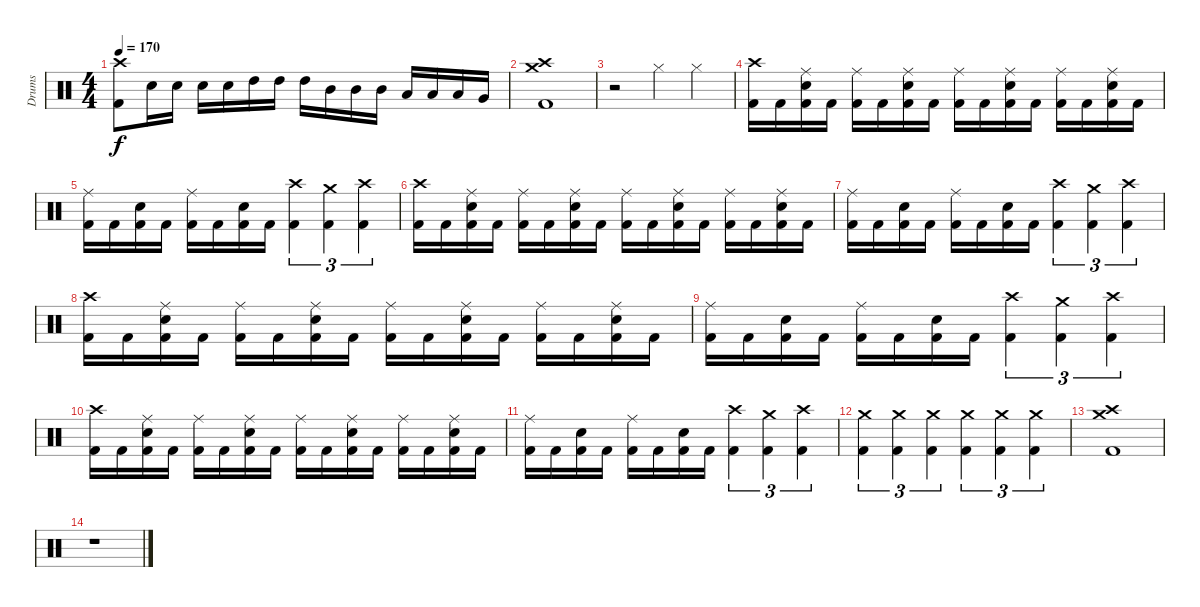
\track ("Drums" "Drums") {instrument percussion}
\staff {score}
\articulation defaults
\ts (4 4)
\tempo 170
\clef neutral
\ks c
("Crash high (hit)" "Kick (hit) 2").8{dy f} "Snare (hit) 2".16 "Snare (hit) 2".16 "Snare (hit) 2".16 "Snare (hit) 2".16 "High Tom (hit)".16 "High Tom (hit)".16 "High Tom (hit)".16 "Mid Tom (hit)".16 "Mid Tom (hit)".16 "Mid Tom (hit)".16 "Low Tom (hit)".16 "Low Tom (hit)".16 "Low Tom (hit)".16 "Very Low Tom (hit)".16 |
("Crash high (hit)" "Crash medium (hit)" "Kick (hit) 2").1 |
r.2 "Hi-Hat (closed)".4 "Hi-Hat (closed)".4 |
("Crash high (hit)" "Kick (hit) 2").16 "Kick (hit) 2".16 ("Ride (middle)" "Snare (hit) 2" "Kick (hit) 2").16 "Kick (hit) 2".16 ("Ride (middle)" "Kick (hit) 2").16 "Kick (hit) 2".16 ("Ride (middle)" "Snare (hit) 2" "Kick (hit) 2").16 "Kick (hit) 2".16 ("Ride (middle)" "Kick (hit) 2").16 "Kick (hit) 2".16 ("Ride (middle)" "Snare (hit) 2" "Kick (hit) 2").16 "Kick (hit) 2".16 ("Ride (middle)" "Kick (hit) 2").16 "Kick (hit) 2".16 ("Ride (middle)" "Snare (hit) 2" "Kick (hit) 2").16 "Kick (hit) 2".16 |
("Ride (middle)" "Kick (hit) 2").16 "Kick (hit) 2".16 ("Snare (hit) 2" "Kick (hit) 2").16 "Kick (hit) 2".16 ("Ride (middle)" "Kick (hit) 2").16 "Kick (hit) 2".16 ("Snare (hit) 2" "Kick (hit) 2").16 "Kick (hit) 2".16 ("Crash high (hit)" "Kick (hit) 2").4{tu (3 2)} ("Crash medium (hit)" "Kick (hit) 2").4{tu (3 2)} ("Crash high (hit)" "Kick (hit) 2").4{tu (3 2)} |
("Crash high (hit)" "Kick (hit) 2").16 "Kick (hit) 2".16 ("Ride (middle)" "Snare (hit) 2" "Kick (hit) 2").16 "Kick (hit) 2".16 ("Ride (middle)" "Kick (hit) 2").16 "Kick (hit) 2".16 ("Ride (middle)" "Snare (hit) 2" "Kick (hit) 2").16 "Kick (hit) 2".16 ("Ride (middle)" "Kick (hit) 2").16 "Kick (hit) 2".16 ("Ride (middle)" "Snare (hit) 2" "Kick (hit) 2").16 "Kick (hit) 2".16 ("Ride (middle)" "Kick (hit) 2").16 "Kick (hit) 2".16 ("Ride (middle)" "Snare (hit) 2" "Kick (hit) 2").16 "Kick (hit) 2".16 |
("Ride (middle)" "Kick (hit) 2").16 "Kick (hit) 2".16 ("Snare (hit) 2" "Kick (hit) 2").16 "Kick (hit) 2".16 ("Ride (middle)" "Kick (hit) 2").16 "Kick (hit) 2".16 ("Snare (hit) 2" "Kick (hit) 2").16 "Kick (hit) 2".16 ("Crash high (hit)" "Kick (hit) 2").4{tu (3 2)} ("Crash medium (hit)" "Kick (hit) 2").4{tu (3 2)} ("Crash high (hit)" "Kick (hit) 2").4{tu (3 2)} |
("Crash high (hit)" "Kick (hit) 2").16 "Kick (hit) 2".16 ("Ride (middle)" "Snare (hit) 2" "Kick (hit) 2").16 "Kick (hit) 2".16 ("Ride (middle)" "Kick (hit) 2").16 "Kick (hit) 2".16 ("Ride (middle)" "Snare (hit) 2" "Kick (hit) 2").16 "Kick (hit) 2".16 ("Ride (middle)" "Kick (hit) 2").16 "Kick (hit) 2".16 ("Ride (middle)" "Snare (hit) 2" "Kick (hit) 2").16 "Kick (hit) 2".16 ("Ride (middle)" "Kick (hit) 2").16 "Kick (hit) 2".16 ("Ride (middle)" "Snare (hit) 2" "Kick (hit) 2").16 "Kick (hit) 2".16 |
("Ride (middle)" "Kick (hit) 2").16 "Kick (hit) 2".16 ("Snare (hit) 2" "Kick (hit) 2").16 "Kick (hit) 2".16 ("Ride (middle)" "Kick (hit) 2").16 "Kick (hit) 2".16 ("Snare (hit) 2" "Kick (hit) 2").16 "Kick (hit) 2".16 ("Crash high (hit)" "Kick (hit) 2").4{tu (3 2)} ("Crash medium (hit)" "Kick (hit) 2").4{tu (3 2)} ("Crash high (hit)" "Kick (hit) 2").4{tu (3 2)} |
("Crash high (hit)" "Kick (hit) 2").16 "Kick (hit) 2".16 ("Ride (middle)" "Snare (hit) 2" "Kick (hit) 2").16 "Kick (hit) 2".16 ("Ride (middle)" "Kick (hit) 2").16 "Kick (hit) 2".16 ("Ride (middle)" "Snare (hit) 2" "Kick (hit) 2").16 "Kick (hit) 2".16 ("Ride (middle)" "Kick (hit) 2").16 "Kick (hit) 2".16 ("Ride (middle)" "Snare (hit) 2" "Kick (hit) 2").16 "Kick (hit) 2".16 ("Ride (middle)" "Kick (hit) 2").16 "Kick (hit) 2".16 ("Ride (middle)" "Snare (hit) 2" "Kick (hit) 2").16 "Kick (hit) 2".16 |
("Ride (middle)" "Kick (hit) 2").16 "Kick (hit) 2".16 ("Snare (hit) 2" "Kick (hit) 2").16 "Kick (hit) 2".16 ("Ride (middle)" "Kick (hit) 2").16 "Kick (hit) 2".16 ("Snare (hit) 2" "Kick (hit) 2").16 "Kick (hit) 2".16 ("Crash high (hit)" "Kick (hit) 2").4{tu (3 2)} ("Crash medium (hit)" "Kick (hit) 2").4{tu (3 2)} ("Crash high (hit)" "Kick (hit) 2").4{tu (3 2)} |
("Crash medium (hit)" "Kick (hit) 2").4{tu (3 2)} ("Crash medium (hit)" "Kick (hit) 2").4{tu (3 2)} ("Crash medium (hit)" "Kick (hit) 2").4{tu (3 2)} ("Crash medium (hit)" "Kick (hit) 2").4{tu (3 2)} ("Crash medium (hit)" "Kick (hit) 2").4{tu (3 2)} ("Crash medium (hit)" "Kick (hit) 2").4{tu (3 2)} |
("Crash medium (hit)" "Crash high (hit)" "Kick (hit) 2").1 |
r.1
